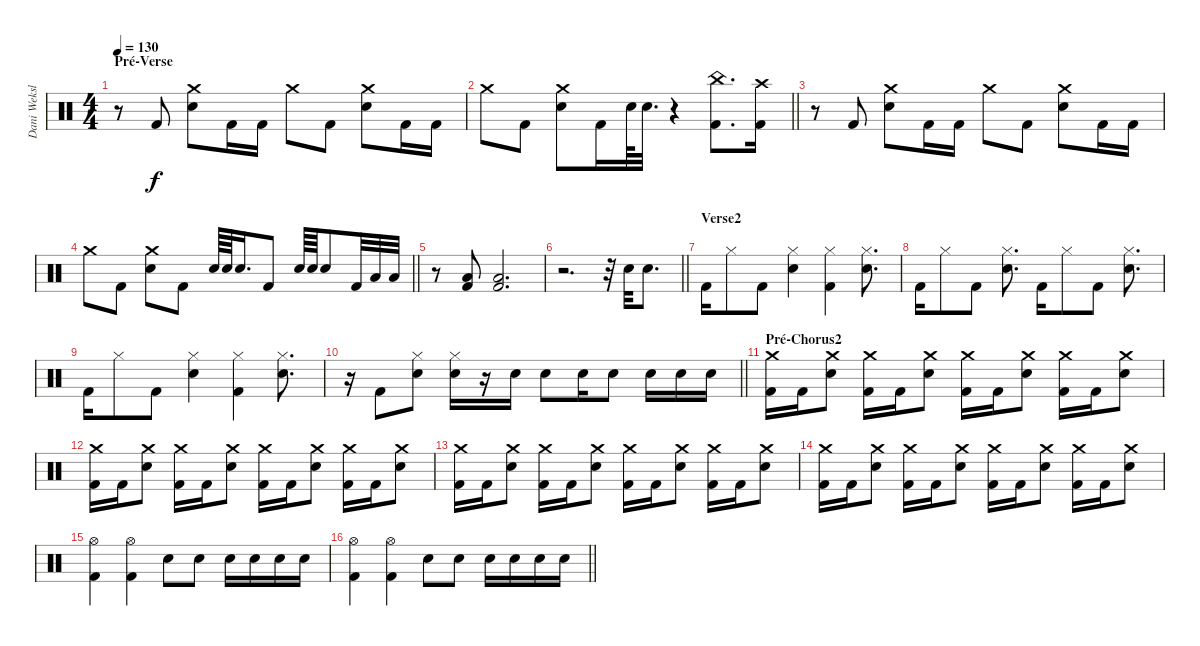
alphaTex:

\track ("Dani Weksler(Bateria)" "Dani Weksl") {instrument percussion}
\staff {score}
\articulation defaults
\ts (4 4)
\section ("" "Pré-Verse")
\tempo 130
\clef neutral
\ks c
r.8{dy f} "Kick (hit) 2".8 ("Crash medium (hit)" "Electric Snare (hit)").8 "Kick (hit) 2".16 "Kick (hit) 2".16 "Crash medium (hit)".8 "Kick (hit) 2".8 ("Crash medium (hit)" "Electric Snare (hit)").8 "Kick (hit) 2".16 "Kick (hit) 2".16 |
\barLineRight lightlight "Crash medium (hit)".8 "Kick (hit) 2".8
("Crash medium (hit)" "Electric Snare (hit)").8 "Kick (hit) 2".16 "Electric Snare (hit)".64 "Electric Snare (hit)".32{d} r.4 ("China (hit)" "Kick (hit) 2").8{d} ("Crash high (hit)" "Kick (hit) 2").16 |
r.8 "Kick (hit) 2".8 ("Crash medium (hit)" "Electric Snare (hit)").8 "Kick (hit) 2".16 "Kick (hit) 2".16 "Crash medium (hit)".8 "Kick (hit) 2".8 ("Crash medium (hit)" "Electric Snare (hit)").8 "Kick (hit) 2".16 "Kick (hit) 2".16 |
\barLineRight lightlight "Crash medium (hit)".8 "Kick (hit) 2".8
("Crash medium (hit)" "Electric Snare (hit)").8 "Kick (hit) 2".8 "Electric Snare (hit)".64 "Electric Snare (hit)".64 "Electric Snare (hit)".16{d} "Kick (hit) 2".8 "Electric Snare (hit)".64 "Electric Snare (hit)".64 "Electric Snare (hit)".8 "Kick (hit) 2".32 "Low Floor Tom (hit)".32 "Low Floor Tom (hit)".32 |
r.8 ("Low Floor Tom (hit)" "Kick (hit) 2").8 ("Low Floor Tom (hit)" "Kick (hit) 2").2{d} |
\barLineRight lightlight
r.2{d} r.32 "Electric Snare (hit)".32 "Electric Snare (hit)".8{d} |
\section ("" "Verse2")
"Kick (hit) 2".16 "Hi-Hat (closed)".8 "Kick (hit) 2".8 ("Hi-Hat (closed)" "Electric Snare (hit)").4 ("Hi-Hat (closed)" "Kick (hit) 2").4 ("Hi-Hat (closed)" "Electric Snare (hit)").8{d} |
"Kick (hit) 2".16 "Hi-Hat (closed)".8 "Kick (hit) 2".8 ("Hi-Hat (closed)" "Electric Snare (hit)").8{d} "Kick (hit) 2".16 "Hi-Hat (closed)".8 "Kick (hit) 2".8 ("Hi-Hat (closed)" "Electric Snare (hit)").8{d} |
"Kick (hit) 2".16 "Hi-Hat (closed)".8 "Kick (hit) 2".8 ("Hi-Hat (closed)" "Electric Snare (hit)").4 ("Hi-Hat (closed)" "Kick (hit) 2").4 ("Hi-Hat (closed)" "Electric Snare (hit)").8{d} |
\barLineRight lightlight
r.16 "Kick (hit) 2".8 ("Hi-Hat (closed)" "Electric Snare (hit)").8 ("Hi-Hat (closed)" "Electric Snare (hit)").16 r.16 "Electric Snare (hit)".16 "Electric Snare (hit)".8 "Electric Snare (hit)".16 "Electric Snare (hit)".8 "Electric Snare (hit)".16 "Electric Snare (hit)".16 "Electric Snare (hit)".16 |
\section ("" "Pré-Chorus2")
("Crash medium (hit)" "Kick (hit) 2").16 "Kick (hit) 2".16 ("Crash medium (hit)" "Electric Snare (hit)").8 ("Crash medium (hit)" "Kick (hit) 2").16 "Kick (hit) 2".16 ("Crash medium (hit)" "Electric Snare (hit)").8 ("Crash medium (hit)" "Kick (hit) 2").16 "Kick (hit) 2".16 ("Crash medium (hit)" "Electric Snare (hit)").8 ("Crash medium (hit)" "Kick (hit) 2").16 "Kick (hit) 2".16 ("Crash medium (hit)" "Electric Snare (hit)").8 |
("Crash medium (hit)" "Kick (hit) 2").16 "Kick (hit) 2".16 ("Crash medium (hit)" "Electric Snare (hit)").8 ("Crash medium (hit)" "Kick (hit) 2").16 "Kick (hit) 2".16 ("Crash medium (hit)" "Electric Snare (hit)").8 ("Crash medium (hit)" "Kick (hit) 2").16 "Kick (hit) 2".16 ("Crash medium (hit)" "Electric Snare (hit)").8 ("Crash medium (hit)" "Kick (hit) 2").16 "Kick (hit) 2".16 ("Crash medium (hit)" "Electric Snare (hit)").8 |
("Crash medium (hit)" "Kick (hit) 2").16 "Kick (hit) 2".16 ("Crash medium (hit)" "Electric Snare (hit)").8 ("Crash medium (hit)" "Kick (hit) 2").16 "Kick (hit) 2".16 ("Crash medium (hit)" "Electric Snare (hit)").8 ("Crash medium (hit)" "Kick (hit) 2").16 "Kick (hit) 2".16 ("Crash medium (hit)" "Electric Snare (hit)").8 ("Crash medium (hit)" "Kick (hit) 2").16 "Kick (hit) 2".16 ("Crash medium (hit)" "Electric Snare (hit)").8 |
("Crash medium (hit)" "Kick (hit) 2").16 "Kick (hit) 2".16 ("Crash medium (hit)" "Electric Snare (hit)").8 ("Crash medium (hit)" "Kick (hit) 2").16 "Kick (hit) 2".16 ("Crash medium (hit)" "Electric Snare (hit)").8 ("Crash medium (hit)" "Kick (hit) 2").16 "Kick (hit) 2".16 ("Crash medium (hit)" "Electric Snare (hit)").8 ("Crash medium (hit)" "Kick (hit) 2").16 "Kick (hit) 2".16 ("Crash medium (hit)" "Electric Snare (hit)").8 |
("Hi-Hat (open)" "Kick (hit) 2").4 ("Hi-Hat (open)" "Kick (hit) 2").4 "Electric Snare (hit)".8 "Electric Snare (hit)".8 "Electric Snare (hit)".16 "Electric Snare (hit)".16 "Electric Snare (hit)".16 "Electric Snare (hit)".16 |
\barLineRight lightlight
("Hi-Hat (open)" "Kick (hit) 2").4 ("Hi-Hat (open)" "Kick (hit) 2").4 "Electric Snare (hit)".8 "Electric Snare (hit)".8 "Electric Snare (hit)".16 "Electric Snare (hit)".16 "Electric Snare (hit)".16 "Electric Snare (hit)".16
